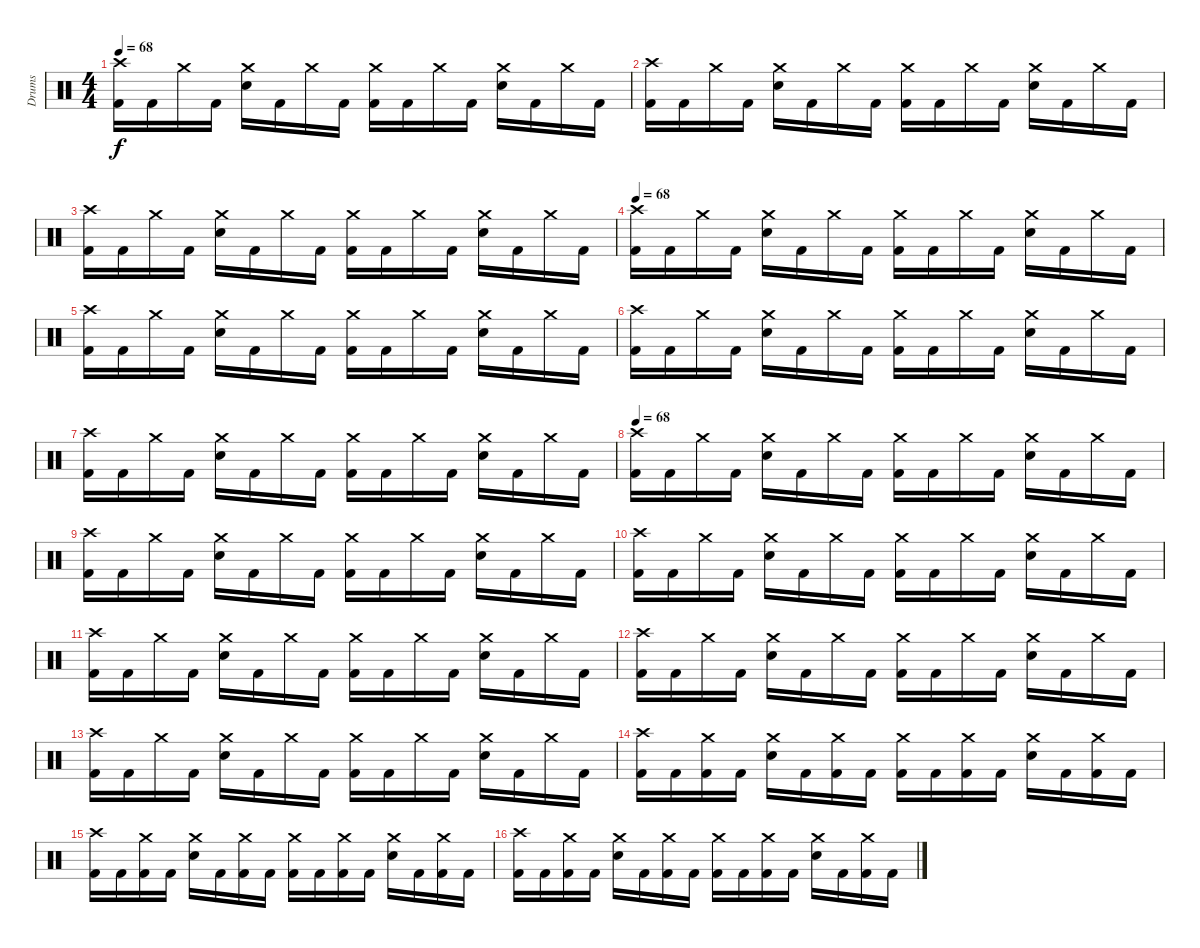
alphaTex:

\track ("Drums" "Drums") {instrument percussion}
\staff {score}
\articulation defaults
\ts (4 4)
\tempo 68
\clef neutral
\ks c
("Crash high (hit)" "Kick (hit) 2").16{dy f} "Kick (hit) 2".16 "Crash medium (hit)".16 "Kick (hit) 2".16 ("Crash medium (hit)" "Electric Snare (hit)").16 "Kick (hit) 2".16 "Crash medium (hit)".16 "Kick (hit) 2".16 ("Crash medium (hit)" "Kick (hit) 2").16 "Kick (hit) 2".16 "Crash medium (hit)".16 "Kick (hit) 2".16 ("Crash medium (hit)" "Electric Snare (hit)").16 "Kick (hit) 2".16 "Crash medium (hit)".16 "Kick (hit) 2".16 |
("Crash high (hit)" "Kick (hit) 2").16 "Kick (hit) 2".16 "Crash medium (hit)".16 "Kick (hit) 2".16 ("Crash medium (hit)" "Electric Snare (hit)").16 "Kick (hit) 2".16 "Crash medium (hit)".16 "Kick (hit) 2".16 ("Crash medium (hit)" "Kick (hit) 2").16 "Kick (hit) 2".16 "Crash medium (hit)".16 "Kick (hit) 2".16 ("Crash medium (hit)" "Electric Snare (hit)").16 "Kick (hit) 2".16 "Crash medium (hit)".16 "Kick (hit) 2".16 |
("Crash high (hit)" "Kick (hit) 2").16 "Kick (hit) 2".16 "Crash medium (hit)".16 "Kick (hit) 2".16 ("Crash medium (hit)" "Electric Snare (hit)").16 "Kick (hit) 2".16 "Crash medium (hit)".16 "Kick (hit) 2".16 ("Crash medium (hit)" "Kick (hit) 2").16 "Kick (hit) 2".16 "Crash medium (hit)".16 "Kick (hit) 2".16 ("Crash medium (hit)" "Electric Snare (hit)").16 "Kick (hit) 2".16 "Crash medium (hit)".16 "Kick (hit) 2".16 |
\tempo 68
("Crash high (hit)" "Kick (hit) 2").16 "Kick (hit) 2".16 "Crash medium (hit)".16 "Kick (hit) 2".16 ("Crash medium (hit)" "Electric Snare (hit)").16 "Kick (hit) 2".16 "Crash medium (hit)".16 "Kick (hit) 2".16 ("Crash medium (hit)" "Kick (hit) 2").16 "Kick (hit) 2".16 "Crash medium (hit)".16 "Kick (hit) 2".16 ("Crash medium (hit)" "Electric Snare (hit)").16 "Kick (hit) 2".16 "Crash medium (hit)".16 "Kick (hit) 2".16 |
("Crash high (hit)" "Kick (hit) 2").16 "Kick (hit) 2".16 "Crash medium (hit)".16 "Kick (hit) 2".16 ("Crash medium (hit)" "Electric Snare (hit)").16 "Kick (hit) 2".16 "Crash medium (hit)".16 "Kick (hit) 2".16 ("Crash medium (hit)" "Kick (hit) 2").16 "Kick (hit) 2".16 "Crash medium (hit)".16 "Kick (hit) 2".16 ("Crash medium (hit)" "Electric Snare (hit)").16 "Kick (hit) 2".16 "Crash medium (hit)".16 "Kick (hit) 2".16 |
("Crash high (hit)" "Kick (hit) 2").16 "Kick (hit) 2".16 "Crash medium (hit)".16 "Kick (hit) 2".16 ("Crash medium (hit)" "Electric Snare (hit)").16 "Kick (hit) 2".16 "Crash medium (hit)".16 "Kick (hit) 2".16 ("Crash medium (hit)" "Kick (hit) 2").16 "Kick (hit) 2".16 "Crash medium (hit)".16 "Kick (hit) 2".16 ("Crash medium (hit)" "Electric Snare (hit)").16 "Kick (hit) 2".16 "Crash medium (hit)".16 "Kick (hit) 2".16 |
("Crash high (hit)" "Kick (hit) 2").16 "Kick (hit) 2".16 "Crash medium (hit)".16 "Kick (hit) 2".16 ("Crash medium (hit)" "Electric Snare (hit)").16 "Kick (hit) 2".16 "Crash medium (hit)".16 "Kick (hit) 2".16 ("Crash medium (hit)" "Kick (hit) 2").16 "Kick (hit) 2".16 "Crash medium (hit)".16 "Kick (hit) 2".16 ("Crash medium (hit)" "Electric Snare (hit)").16 "Kick (hit) 2".16 "Crash medium (hit)".16 "Kick (hit) 2".16 |
\tempo 68
("Crash high (hit)" "Kick (hit) 2").16 "Kick (hit) 2".16 "Crash medium (hit)".16 "Kick (hit) 2".16 ("Crash medium (hit)" "Electric Snare (hit)").16 "Kick (hit) 2".16 "Crash medium (hit)".16 "Kick (hit) 2".16 ("Crash medium (hit)" "Kick (hit) 2").16 "Kick (hit) 2".16 "Crash medium (hit)".16 "Kick (hit) 2".16 ("Crash medium (hit)" "Electric Snare (hit)").16 "Kick (hit) 2".16 "Crash medium (hit)".16 "Kick (hit) 2".16 |
("Crash high (hit)" "Kick (hit) 2").16 "Kick (hit) 2".16 "Crash medium (hit)".16 "Kick (hit) 2".16 ("Crash medium (hit)" "Electric Snare (hit)").16 "Kick (hit) 2".16 "Crash medium (hit)".16 "Kick (hit) 2".16 ("Crash medium (hit)" "Kick (hit) 2").16 "Kick (hit) 2".16 "Crash medium (hit)".16 "Kick (hit) 2".16 ("Crash medium (hit)" "Electric Snare (hit)").16 "Kick (hit) 2".16 "Crash medium (hit)".16 "Kick (hit) 2".16 |
("Crash high (hit)" "Kick (hit) 2").16 "Kick (hit) 2".16 "Crash medium (hit)".16 "Kick (hit) 2".16 ("Crash medium (hit)" "Electric Snare (hit)").16 "Kick (hit) 2".16 "Crash medium (hit)".16 "Kick (hit) 2".16 ("Crash medium (hit)" "Kick (hit) 2").16 "Kick (hit) 2".16 "Crash medium (hit)".16 "Kick (hit) 2".16 ("Crash medium (hit)" "Electric Snare (hit)").16 "Kick (hit) 2".16 "Crash medium (hit)".16 "Kick (hit) 2".16 |
("Crash high (hit)" "Kick (hit) 2").16 "Kick (hit) 2".16 "Crash medium (hit)".16 "Kick (hit) 2".16 ("Crash medium (hit)" "Electric Snare (hit)").16 "Kick (hit) 2".16 "Crash medium (hit)".16 "Kick (hit) 2".16 ("Crash medium (hit)" "Kick (hit) 2").16 "Kick (hit) 2".16 "Crash medium (hit)".16 "Kick (hit) 2".16 ("Crash medium (hit)" "Electric Snare (hit)").16 "Kick (hit) 2".16 "Crash medium (hit)".16 "Kick (hit) 2".16 |
("Crash high (hit)" "Kick (hit) 2").16 "Kick (hit) 2".16 "Crash medium (hit)".16 "Kick (hit) 2".16 ("Crash medium (hit)" "Electric Snare (hit)").16 "Kick (hit) 2".16 "Crash medium (hit)".16 "Kick (hit) 2".16 ("Crash medium (hit)" "Kick (hit) 2").16 "Kick (hit) 2".16 "Crash medium (hit)".16 "Kick (hit) 2".16 ("Crash medium (hit)" "Electric Snare (hit)").16 "Kick (hit) 2".16 "Crash medium (hit)".16 "Kick (hit) 2".16 |
("Crash high (hit)" "Kick (hit) 2").16 "Kick (hit) 2".16 "Crash medium (hit)".16 "Kick (hit) 2".16 ("Crash medium (hit)" "Electric Snare (hit)").16 "Kick (hit) 2".16 "Crash medium (hit)".16 "Kick (hit) 2".16 ("Crash medium (hit)" "Kick (hit) 2").16 "Kick (hit) 2".16 "Crash medium (hit)".16 "Kick (hit) 2".16 ("Crash medium (hit)" "Electric Snare (hit)").16 "Kick (hit) 2".16 "Crash medium (hit)".16 "Kick (hit) 2".16 |
("Crash high (hit)" "Kick (hit) 2").16 "Kick (hit) 2".16 ("Crash medium (hit)" "Kick (hit) 2").16 "Kick (hit) 2".16 ("Crash medium (hit)" "Electric Snare (hit)").16 "Kick (hit) 2".16 ("Crash medium (hit)" "Kick (hit) 2").16 "Kick (hit) 2".16 ("Crash medium (hit)" "Kick (hit) 2").16 "Kick (hit) 2".16 ("Crash medium (hit)" "Kick (hit) 2").16 "Kick (hit) 2".16 ("Crash medium (hit)" "Electric Snare (hit)").16 "Kick (hit) 2".16 ("Crash medium (hit)" "Kick (hit) 2").16 "Kick (hit) 2".16 |
("Crash high (hit)" "Kick (hit) 2").16 "Kick (hit) 2".16 ("Crash medium (hit)" "Kick (hit) 2").16 "Kick (hit) 2".16 ("Crash medium (hit)" "Electric Snare (hit)").16 "Kick (hit) 2".16 ("Crash medium (hit)" "Kick (hit) 2").16 "Kick (hit) 2".16 ("Crash medium (hit)" "Kick (hit) 2").16 "Kick (hit) 2".16 ("Crash medium (hit)" "Kick (hit) 2").16 "Kick (hit) 2".16 ("Crash medium (hit)" "Electric Snare (hit)").16 "Kick (hit) 2".16 ("Crash medium (hit)" "Kick (hit) 2").16 "Kick (hit) 2".16 |
("Crash high (hit)" "Kick (hit) 2").16 "Kick (hit) 2".16 ("Crash medium (hit)" "Kick (hit) 2").16 "Kick (hit) 2".16 ("Crash medium (hit)" "Electric Snare (hit)").16 "Kick (hit) 2".16 ("Crash medium (hit)" "Kick (hit) 2").16 "Kick (hit) 2".16 ("Crash medium (hit)" "Kick (hit) 2").16 "Kick (hit) 2".16 ("Crash medium (hit)" "Kick (hit) 2").16 "Kick (hit) 2".16 ("Crash medium (hit)" "Electric Snare (hit)").16 "Kick (hit) 2".16 ("Crash medium (hit)" "Kick (hit) 2").16 "Kick (hit) 2".16
